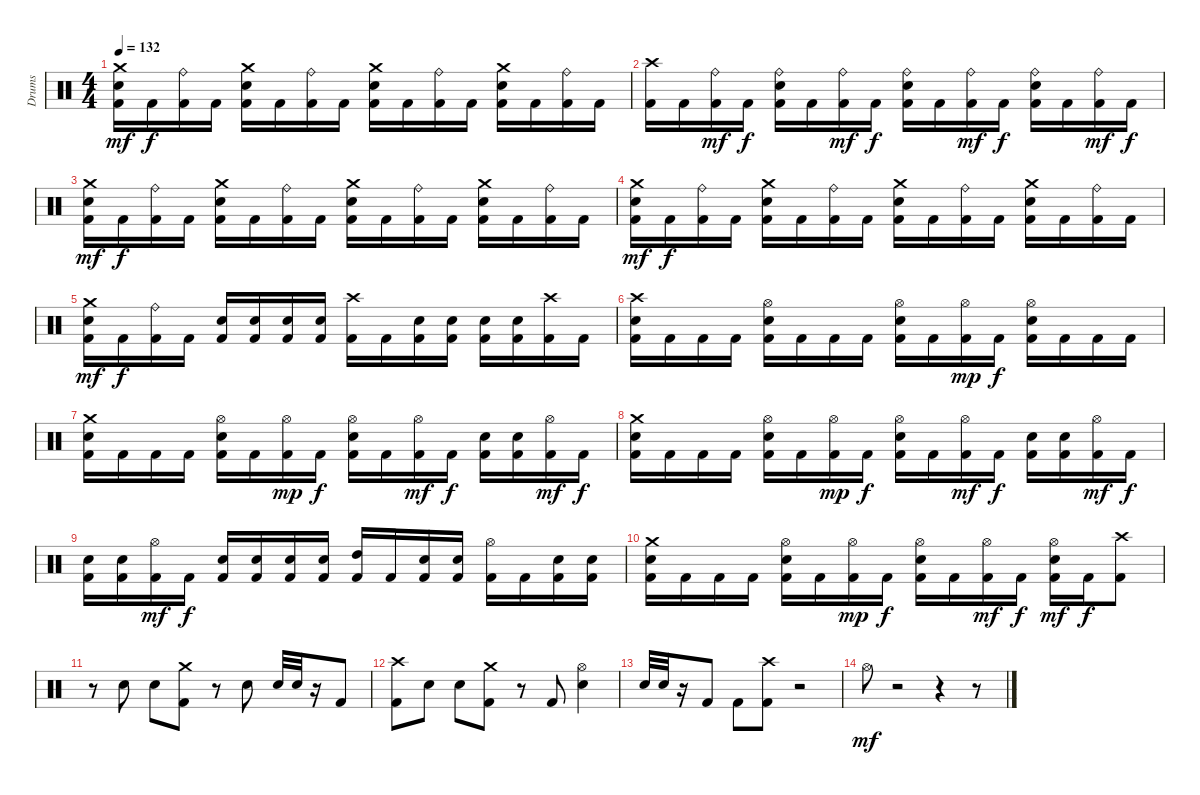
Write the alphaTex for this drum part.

\track ("Drums" "Drums") {instrument percussion}
\staff {score}
\articulation defaults
\ts (4 4)
\tempo 132
\clef neutral
\ks c
("Kick (hit) 2" "Electric Snare (hit)" "Crash medium (hit)").16{dy mf} "Kick (hit) 2".16{dy f} ("Kick (hit) 2" "Ride (bell)").16 "Kick (hit) 2".16 ("Kick (hit) 2" "Electric Snare (hit)" "Crash medium (hit)").16 "Kick (hit) 2".16 ("Kick (hit) 2" "Ride (bell)").16 "Kick (hit) 2".16 ("Kick (hit) 2" "Electric Snare (hit)" "Crash medium (hit)").16 "Kick (hit) 2".16 ("Kick (hit) 2" "Ride (bell)").16 "Kick (hit) 2".16 ("Kick (hit) 2" "Electric Snare (hit)" "Crash medium (hit)").16 "Kick (hit) 2".16 ("Kick (hit) 2" "Ride (bell)").16 "Kick (hit) 2".16 |
("Kick (hit) 2" "Crash high (hit)").16 "Kick (hit) 2".16 ("Kick (hit) 2" "Ride (bell)").16{dy mf} "Kick (hit) 2".16{dy f} ("Kick (hit) 2" "Electric Snare (hit)" "Ride (bell)").16 "Kick (hit) 2".16 ("Kick (hit) 2" "Ride (bell)").16{dy mf} "Kick (hit) 2".16{dy f} ("Kick (hit) 2" "Electric Snare (hit)" "Ride (bell)").16 "Kick (hit) 2".16 ("Kick (hit) 2" "Ride (bell)").16{dy mf} "Kick (hit) 2".16{dy f} ("Kick (hit) 2" "Electric Snare (hit)" "Ride (bell)").16 "Kick (hit) 2".16 ("Kick (hit) 2" "Ride (bell)").16{dy mf} "Kick (hit) 2".16{dy f} |
("Kick (hit) 2" "Electric Snare (hit)" "Crash medium (hit)").16{dy mf} "Kick (hit) 2".16{dy f} ("Kick (hit) 2" "Ride (bell)").16 "Kick (hit) 2".16 ("Kick (hit) 2" "Electric Snare (hit)" "Crash medium (hit)").16 "Kick (hit) 2".16 ("Kick (hit) 2" "Ride (bell)").16 "Kick (hit) 2".16 ("Kick (hit) 2" "Electric Snare (hit)" "Crash medium (hit)").16 "Kick (hit) 2".16 ("Kick (hit) 2" "Ride (bell)").16 "Kick (hit) 2".16 ("Kick (hit) 2" "Electric Snare (hit)" "Crash medium (hit)").16 "Kick (hit) 2".16 ("Kick (hit) 2" "Ride (bell)").16 "Kick (hit) 2".16 |
("Crash medium (hit)" "Electric Snare (hit)" "Kick (hit) 2").16{dy mf} "Kick (hit) 2".16{dy f} ("Kick (hit) 2" "Ride (bell)").16 "Kick (hit) 2".16 ("Kick (hit) 2" "Electric Snare (hit)" "Crash medium (hit)").16 "Kick (hit) 2".16 ("Kick (hit) 2" "Ride (bell)").16 "Kick (hit) 2".16 ("Kick (hit) 2" "Electric Snare (hit)" "Crash medium (hit)").16 "Kick (hit) 2".16 ("Kick (hit) 2" "Ride (bell)").16 "Kick (hit) 2".16 ("Kick (hit) 2" "Electric Snare (hit)" "Crash medium (hit)").16 "Kick (hit) 2".16 ("Kick (hit) 2" "Ride (bell)").16 "Kick (hit) 2".16 |
("Crash medium (hit)" "Electric Snare (hit)" "Kick (hit) 2").16{dy mf} "Kick (hit) 2".16{dy f} ("Kick (hit) 2" "Ride (bell)").16 "Kick (hit) 2".16 ("Kick (hit) 2" "Electric Snare (hit)").16 ("Kick (hit) 2" "Electric Snare (hit)").16 ("Kick (hit) 2" "Electric Snare (hit)").16 ("Kick (hit) 2" "Electric Snare (hit)").16 ("Kick (hit) 2" "Crash high (hit)").16 "Kick (hit) 2".16 ("Kick (hit) 2" "Electric Snare (hit)").16 ("Kick (hit) 2" "Electric Snare (hit)").16 ("Kick (hit) 2" "Electric Snare (hit)").16 ("Kick (hit) 2" "Electric Snare (hit)").16 ("Kick (hit) 2" "Crash high (hit)").16 "Kick (hit) 2".16 |
("Crash high (hit)" "Kick (hit) 2" "Electric Snare (hit)").16 "Kick (hit) 2".16 "Kick (hit) 2".16 "Kick (hit) 2".16 ("Kick (hit) 2" "Electric Snare (hit)" "Hi-Hat (open)").16 "Kick (hit) 2".16 "Kick (hit) 2".16 "Kick (hit) 2".16 ("Kick (hit) 2" "Electric Snare (hit)" "Hi-Hat (open)").16 "Kick (hit) 2".16 ("Kick (hit) 2" "Hi-Hat (open)").16{dy mp} "Kick (hit) 2".16{dy f} ("Kick (hit) 2" "Electric Snare (hit)" "Hi-Hat (open)").16 "Kick (hit) 2".16 "Kick (hit) 2".16 "Kick (hit) 2".16 |
("Kick (hit) 2" "Electric Snare (hit)" "Crash medium (hit)").16 "Kick (hit) 2".16 "Kick (hit) 2".16 "Kick (hit) 2".16 ("Kick (hit) 2" "Electric Snare (hit)" "Hi-Hat (open)").16 "Kick (hit) 2".16 ("Kick (hit) 2" "Hi-Hat (open)").16{dy mp} "Kick (hit) 2".16{dy f} ("Kick (hit) 2" "Electric Snare (hit)" "Hi-Hat (open)").16 "Kick (hit) 2".16 ("Kick (hit) 2" "Hi-Hat (open)").16{dy mf} "Kick (hit) 2".16{dy f} ("Kick (hit) 2" "Electric Snare (hit)").16 ("Kick (hit) 2" "Electric Snare (hit)").16 ("Kick (hit) 2" "Hi-Hat (open)").16{dy mf} "Kick (hit) 2".16{dy f} |
("Crash medium (hit)" "Electric Snare (hit)" "Kick (hit) 2").16 "Kick (hit) 2".16 "Kick (hit) 2".16 "Kick (hit) 2".16 ("Kick (hit) 2" "Electric Snare (hit)" "Hi-Hat (open)").16 "Kick (hit) 2".16 ("Kick (hit) 2" "Hi-Hat (open)").16{dy mp} "Kick (hit) 2".16{dy f} ("Kick (hit) 2" "Electric Snare (hit)" "Hi-Hat (open)").16 "Kick (hit) 2".16 ("Kick (hit) 2" "Hi-Hat (open)").16{dy mf} "Kick (hit) 2".16{dy f} ("Kick (hit) 2" "Electric Snare (hit)").16 ("Kick (hit) 2" "Electric Snare (hit)").16 ("Kick (hit) 2" "Hi-Hat (open)").16{dy mf} "Kick (hit) 2".16{dy f} |
("Electric Snare (hit)" "Kick (hit) 2").16 ("Kick (hit) 2" "Electric Snare (hit)").16 ("Kick (hit) 2" "Hi-Hat (open)").16{dy mf} "Kick (hit) 2".16{dy f} ("Kick (hit) 2" "Electric Snare (hit)").16 ("Kick (hit) 2" "Electric Snare (hit)").16 ("Kick (hit) 2" "Electric Snare (hit)").16 ("Kick (hit) 2" "Electric Snare (hit)").16 ("Kick (hit) 2" "High Tom (hit)").16 "Kick (hit) 2".16 ("Kick (hit) 2" "Electric Snare (hit)").16 ("Kick (hit) 2" "Electric Snare (hit)").16 ("Kick (hit) 2" "Hi-Hat (open)").16 "Kick (hit) 2".16 ("Kick (hit) 2" "Electric Snare (hit)").16 ("Kick (hit) 2" "Electric Snare (hit)").16 |
("Kick (hit) 2" "Electric Snare (hit)" "Crash medium (hit)").16 "Kick (hit) 2".16 "Kick (hit) 2".16 "Kick (hit) 2".16 ("Kick (hit) 2" "Electric Snare (hit)" "Hi-Hat (open)").16 "Kick (hit) 2".16 ("Kick (hit) 2" "Hi-Hat (open)").16{dy mp} "Kick (hit) 2".16{dy f} ("Kick (hit) 2" "Electric Snare (hit)" "Hi-Hat (open)").16 "Kick (hit) 2".16 ("Kick (hit) 2" "Hi-Hat (open)").16{dy mf} "Kick (hit) 2".16{dy f} ("Kick (hit) 2" "Electric Snare (hit)" "Hi-Hat (open)").16{dy mf} "Kick (hit) 2".16{dy f} ("Kick (hit) 2" "Crash high (hit)").8 |
r.8 "Electric Snare (hit)".8 "Electric Snare (hit)".8 ("Kick (hit) 2" "Crash medium (hit)").8 r.8 "Electric Snare (hit)".8 "Electric Snare (hit)".32 "Electric Snare (hit)".32 r.16 "Kick (hit) 2".8 |
("Crash high (hit)" "Kick (hit) 2").8 "Electric Snare (hit)".8 "Electric Snare (hit)".8 ("Kick (hit) 2" "Crash medium (hit)").8 r.8 "Kick (hit) 2".8 ("Electric Snare (hit)" "Hi-Hat (open)").4 |
"Electric Snare (hit)".32 "Electric Snare (hit)".32 r.16 "Kick (hit) 2".8 "Kick (hit) 2".8 ("Kick (hit) 2" "Crash high (hit)").8 r.2 |
"Hi-Hat (open)".8{dy mf} r.2 r.4 r.8
